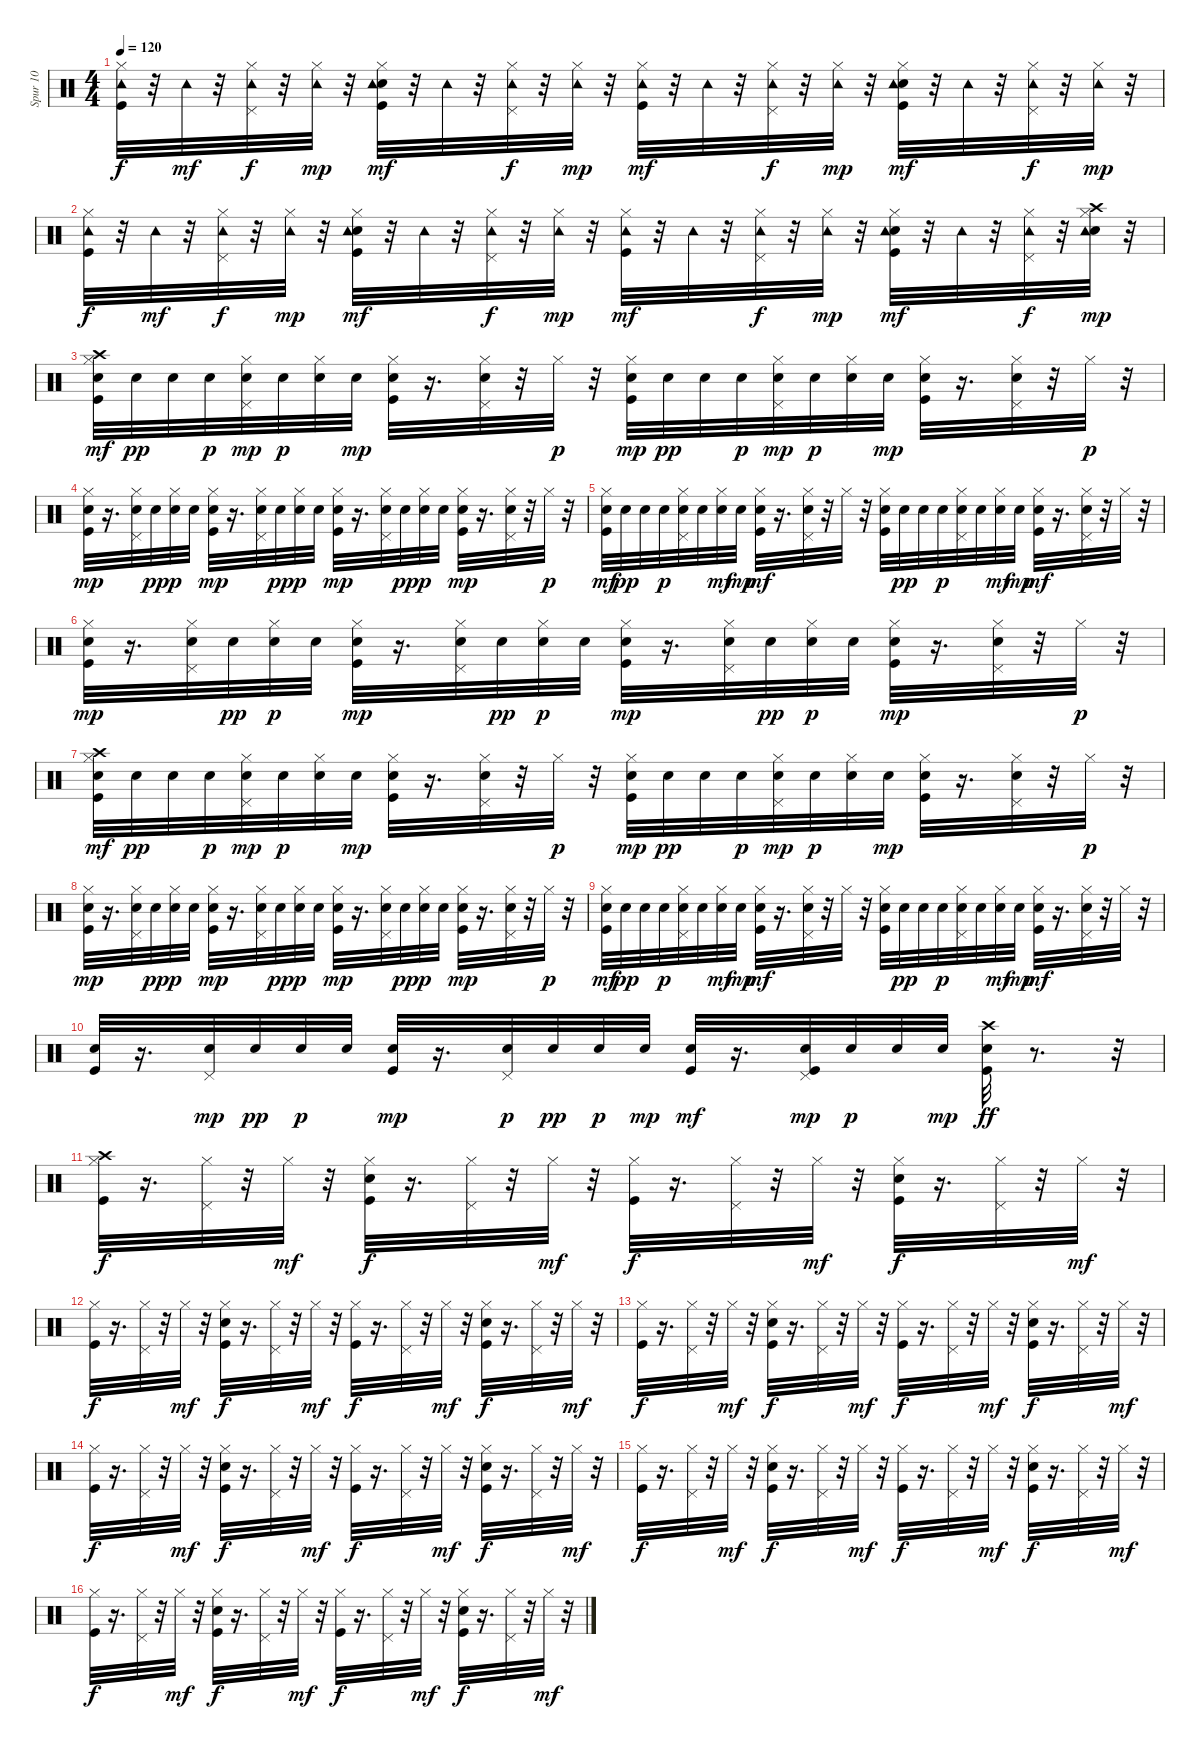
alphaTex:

\track ("Spur 10" "Spur 10") {instrument percussion}
\staff {score}
\articulation defaults
\ts (4 4)
\tempo 120
\clef neutral
\ks c
("Kick (hit)" "Hi-Hat (closed)" "Tambourine (hit)").32{dy f} r.32 "Tambourine (hit)".32{dy mf} r.32 ("Hi-Hat (closed)" "Pedal Hi-Hat (hit)" "Tambourine (hit)").32{dy f} r.32 ("Hi-Hat (closed)" "Tambourine (hit)").32{dy mp} r.32 ("Kick (hit)" "Snare (hit) 2" "Hi-Hat (closed)" "Tambourine (hit)").32{dy mf} r.32 "Tambourine (hit)".32 r.32 ("Hi-Hat (closed)" "Pedal Hi-Hat (hit)" "Tambourine (hit)").32{dy f} r.32 ("Hi-Hat (closed)" "Tambourine (hit)").32{dy mp} r.32 ("Kick (hit)" "Hi-Hat (closed)" "Tambourine (hit)").32{dy mf} r.32 "Tambourine (hit)".32 r.32 ("Hi-Hat (closed)" "Pedal Hi-Hat (hit)" "Tambourine (hit)").32{dy f} r.32 ("Hi-Hat (closed)" "Tambourine (hit)").32{dy mp} r.32 ("Kick (hit)" "Snare (hit) 2" "Hi-Hat (closed)" "Tambourine (hit)").32{dy mf} r.32 "Tambourine (hit)".32 r.32 ("Hi-Hat (closed)" "Pedal Hi-Hat (hit)" "Tambourine (hit)").32{dy f} r.32 ("Hi-Hat (closed)" "Tambourine (hit)").32{dy mp} r.32 |
("Kick (hit)" "Hi-Hat (closed)" "Tambourine (hit)").32{dy f} r.32 "Tambourine (hit)".32{dy mf} r.32 ("Hi-Hat (closed)" "Pedal Hi-Hat (hit)" "Tambourine (hit)").32{dy f} r.32 ("Hi-Hat (closed)" "Tambourine (hit)").32{dy mp} r.32 ("Kick (hit)" "Snare (hit) 2" "Hi-Hat (closed)" "Tambourine (hit)").32{dy mf} r.32 "Tambourine (hit)".32 r.32 ("Hi-Hat (closed)" "Pedal Hi-Hat (hit)" "Tambourine (hit)").32{dy f} r.32 ("Hi-Hat (closed)" "Tambourine (hit)").32{dy mp} r.32 ("Kick (hit)" "Hi-Hat (closed)" "Tambourine (hit)").32{dy mf} r.32 "Tambourine (hit)".32 r.32 ("Hi-Hat (closed)" "Pedal Hi-Hat (hit)" "Tambourine (hit)").32{dy f} r.32 ("Hi-Hat (closed)" "Tambourine (hit)").32{dy mp} r.32 ("Kick (hit)" "Snare (hit) 2" "Hi-Hat (closed)" "Tambourine (hit)").32{dy mf} r.32 "Tambourine (hit)".32 r.32 ("Hi-Hat (closed)" "Pedal Hi-Hat (hit)" "Tambourine (hit)").32{dy f} r.32 ("Snare (hit) 2" "Hi-Hat (closed)" "Crash high (hit)" "Tambourine (hit)").32{dy mp} r.32 |
("Kick (hit)" "Snare (hit) 2" "Hi-Hat (closed)" "Crash high (hit)").32{dy mf} "Snare (hit) 2".32{dy pp} "Snare (hit) 2".32 "Snare (hit) 2".32{dy p} ("Snare (hit) 2" "Hi-Hat (closed)" "Pedal Hi-Hat (hit)").32{dy mp} "Snare (hit) 2".32{dy p} ("Snare (hit) 2" "Hi-Hat (closed)").32 "Snare (hit) 2".32{dy mp} ("Kick (hit)" "Snare (hit) 2" "Hi-Hat (closed)").32 r.16{d} ("Snare (hit) 2" "Hi-Hat (closed)" "Pedal Hi-Hat (hit)").32 r.32 "Hi-Hat (closed)".32{dy p} r.32 ("Kick (hit)" "Snare (hit) 2" "Hi-Hat (closed)").32{dy mp} "Snare (hit) 2".32{dy pp} "Snare (hit) 2".32 "Snare (hit) 2".32{dy p} ("Snare (hit) 2" "Hi-Hat (closed)" "Pedal Hi-Hat (hit)").32{dy mp} "Snare (hit) 2".32{dy p} ("Snare (hit) 2" "Hi-Hat (closed)").32 "Snare (hit) 2".32{dy mp} ("Kick (hit)" "Snare (hit) 2" "Hi-Hat (closed)").32 r.16{d} ("Snare (hit) 2" "Hi-Hat (closed)" "Pedal Hi-Hat (hit)").32 r.32 "Hi-Hat (closed)".32{dy p} r.32 |
("Kick (hit)" "Snare (hit) 2" "Hi-Hat (closed)").32{dy mp} r.16{d} ("Snare (hit) 2" "Hi-Hat (closed)" "Pedal Hi-Hat (hit)").32 "Snare (hit) 2".32{dy pp} ("Snare (hit) 2" "Hi-Hat (closed)").32{dy p} "Snare (hit) 2".32 ("Kick (hit)" "Snare (hit) 2" "Hi-Hat (closed)").32{dy mp} r.16{d} ("Snare (hit) 2" "Hi-Hat (closed)" "Pedal Hi-Hat (hit)").32 "Snare (hit) 2".32{dy pp} ("Snare (hit) 2" "Hi-Hat (closed)").32{dy p} "Snare (hit) 2".32 ("Kick (hit)" "Snare (hit) 2" "Hi-Hat (closed)").32{dy mp} r.16{d} ("Snare (hit) 2" "Hi-Hat (closed)" "Pedal Hi-Hat (hit)").32 "Snare (hit) 2".32{dy pp} ("Snare (hit) 2" "Hi-Hat (closed)").32{dy p} "Snare (hit) 2".32 ("Kick (hit)" "Snare (hit) 2" "Hi-Hat (closed)").32{dy mp} r.16{d} ("Snare (hit) 2" "Hi-Hat (closed)" "Pedal Hi-Hat (hit)").32 r.32 "Hi-Hat (closed)".32{dy p} r.32 |
("Kick (hit)" "Snare (hit) 2" "Hi-Hat (closed)").32{dy mf} "Snare (hit) 2".32{dy pp} "Snare (hit) 2".32 "Snare (hit) 2".32{dy p} ("Snare (hit) 2" "Hi-Hat (closed)" "Pedal Hi-Hat (hit)").32 "Snare (hit) 2".32 ("Snare (hit) 2" "Hi-Hat (closed)").32{dy mf} "Snare (hit) 2".32{dy mp} ("Kick (hit)" "Snare (hit) 2" "Hi-Hat (closed)").32{dy mf} r.16{d} ("Snare (hit) 2" "Hi-Hat (closed)" "Pedal Hi-Hat (hit)").32 r.32 "Hi-Hat (closed)".32 r.32 ("Kick (hit)" "Snare (hit) 2" "Hi-Hat (closed)").32 "Snare (hit) 2".32{dy pp} "Snare (hit) 2".32 "Snare (hit) 2".32{dy p} ("Snare (hit) 2" "Hi-Hat (closed)" "Pedal Hi-Hat (hit)").32 "Snare (hit) 2".32 ("Snare (hit) 2" "Hi-Hat (closed)").32{dy mf} "Snare (hit) 2".32{dy mp} ("Kick (hit)" "Snare (hit) 2" "Hi-Hat (closed)").32{dy mf} r.16{d} ("Snare (hit) 2" "Hi-Hat (closed)" "Pedal Hi-Hat (hit)").32 r.32 "Hi-Hat (closed)".32 r.32 |
("Kick (hit)" "Snare (hit) 2" "Hi-Hat (closed)").32{dy mp} r.16{d} ("Snare (hit) 2" "Hi-Hat (closed)" "Pedal Hi-Hat (hit)").32 "Snare (hit) 2".32{dy pp} ("Snare (hit) 2" "Hi-Hat (closed)").32{dy p} "Snare (hit) 2".32 ("Kick (hit)" "Snare (hit) 2" "Hi-Hat (closed)").32{dy mp} r.16{d} ("Snare (hit) 2" "Hi-Hat (closed)" "Pedal Hi-Hat (hit)").32 "Snare (hit) 2".32{dy pp} ("Snare (hit) 2" "Hi-Hat (closed)").32{dy p} "Snare (hit) 2".32 ("Kick (hit)" "Snare (hit) 2" "Hi-Hat (closed)").32{dy mp} r.16{d} ("Snare (hit) 2" "Hi-Hat (closed)" "Pedal Hi-Hat (hit)").32 "Snare (hit) 2".32{dy pp} ("Snare (hit) 2" "Hi-Hat (closed)").32{dy p} "Snare (hit) 2".32 ("Kick (hit)" "Snare (hit) 2" "Hi-Hat (closed)").32{dy mp} r.16{d} ("Snare (hit) 2" "Hi-Hat (closed)" "Pedal Hi-Hat (hit)").32 r.32 "Hi-Hat (closed)".32{dy p} r.32 |
("Kick (hit)" "Snare (hit) 2" "Hi-Hat (closed)" "Crash high (hit)").32{dy mf} "Snare (hit) 2".32{dy pp} "Snare (hit) 2".32 "Snare (hit) 2".32{dy p} ("Snare (hit) 2" "Hi-Hat (closed)" "Pedal Hi-Hat (hit)").32{dy mp} "Snare (hit) 2".32{dy p} ("Snare (hit) 2" "Hi-Hat (closed)").32 "Snare (hit) 2".32{dy mp} ("Kick (hit)" "Snare (hit) 2" "Hi-Hat (closed)").32 r.16{d} ("Snare (hit) 2" "Hi-Hat (closed)" "Pedal Hi-Hat (hit)").32 r.32 "Hi-Hat (closed)".32{dy p} r.32 ("Kick (hit)" "Snare (hit) 2" "Hi-Hat (closed)").32{dy mp} "Snare (hit) 2".32{dy pp} "Snare (hit) 2".32 "Snare (hit) 2".32{dy p} ("Snare (hit) 2" "Hi-Hat (closed)" "Pedal Hi-Hat (hit)").32{dy mp} "Snare (hit) 2".32{dy p} ("Snare (hit) 2" "Hi-Hat (closed)").32 "Snare (hit) 2".32{dy mp} ("Kick (hit)" "Snare (hit) 2" "Hi-Hat (closed)").32 r.16{d} ("Snare (hit) 2" "Hi-Hat (closed)" "Pedal Hi-Hat (hit)").32 r.32 "Hi-Hat (closed)".32{dy p} r.32 |
("Kick (hit)" "Snare (hit) 2" "Hi-Hat (closed)").32{dy mp} r.16{d} ("Snare (hit) 2" "Hi-Hat (closed)" "Pedal Hi-Hat (hit)").32 "Snare (hit) 2".32{dy pp} ("Snare (hit) 2" "Hi-Hat (closed)").32{dy p} "Snare (hit) 2".32 ("Kick (hit)" "Snare (hit) 2" "Hi-Hat (closed)").32{dy mp} r.16{d} ("Snare (hit) 2" "Hi-Hat (closed)" "Pedal Hi-Hat (hit)").32 "Snare (hit) 2".32{dy pp} ("Snare (hit) 2" "Hi-Hat (closed)").32{dy p} "Snare (hit) 2".32 ("Kick (hit)" "Snare (hit) 2" "Hi-Hat (closed)").32{dy mp} r.16{d} ("Snare (hit) 2" "Hi-Hat (closed)" "Pedal Hi-Hat (hit)").32 "Snare (hit) 2".32{dy pp} ("Snare (hit) 2" "Hi-Hat (closed)").32{dy p} "Snare (hit) 2".32 ("Kick (hit)" "Snare (hit) 2" "Hi-Hat (closed)").32{dy mp} r.16{d} ("Snare (hit) 2" "Hi-Hat (closed)" "Pedal Hi-Hat (hit)").32 r.32 "Hi-Hat (closed)".32{dy p} r.32 |
("Kick (hit)" "Snare (hit) 2" "Hi-Hat (closed)").32{dy mf} "Snare (hit) 2".32{dy pp} "Snare (hit) 2".32 "Snare (hit) 2".32{dy p} ("Snare (hit) 2" "Hi-Hat (closed)" "Pedal Hi-Hat (hit)").32 "Snare (hit) 2".32 ("Snare (hit) 2" "Hi-Hat (closed)").32{dy mf} "Snare (hit) 2".32{dy mp} ("Kick (hit)" "Snare (hit) 2" "Hi-Hat (closed)").32{dy mf} r.16{d} ("Snare (hit) 2" "Hi-Hat (closed)" "Pedal Hi-Hat (hit)").32 r.32 "Hi-Hat (closed)".32 r.32 ("Kick (hit)" "Snare (hit) 2" "Hi-Hat (closed)").32 "Snare (hit) 2".32{dy pp} "Snare (hit) 2".32 "Snare (hit) 2".32{dy p} ("Snare (hit) 2" "Hi-Hat (closed)" "Pedal Hi-Hat (hit)").32 "Snare (hit) 2".32 ("Snare (hit) 2" "Hi-Hat (closed)").32{dy mf} "Snare (hit) 2".32{dy mp} ("Kick (hit)" "Snare (hit) 2" "Hi-Hat (closed)").32{dy mf} r.16{d} ("Snare (hit) 2" "Hi-Hat (closed)" "Pedal Hi-Hat (hit)").32 r.32 "Hi-Hat (closed)".32 r.32 |
("Kick (hit)" "Snare (hit) 2").32 r.16{d} ("Snare (hit) 2" "Pedal Hi-Hat (hit)").32{dy mp} "Snare (hit) 2".32{dy pp} "Snare (hit) 2".32{dy p} "Snare (hit) 2".32 ("Kick (hit)" "Snare (hit) 2").32{dy mp} r.16{d} ("Snare (hit) 2" "Pedal Hi-Hat (hit)").32{dy p} "Snare (hit) 2".32{dy pp} "Snare (hit) 2".32{dy p} "Snare (hit) 2".32{dy mp} ("Kick (hit)" "Snare (hit) 2").32{dy mf} r.16{d} ("Kick (hit)" "Snare (hit) 2" "Pedal Hi-Hat (hit)").32{dy mp} "Snare (hit) 2".32{dy p} "Snare (hit) 2".32 "Snare (hit) 2".32{dy mp} ("Kick (hit)" "Snare (hit) 2" "Crash high (hit)").32{dy ff} r.8{d} r.32 |
("Kick (hit)" "Hi-Hat (closed)" "Crash high (hit)").32{dy f} r.16{d} ("Hi-Hat (closed)" "Pedal Hi-Hat (hit)").32 r.32 "Hi-Hat (closed)".32{dy mf} r.32 ("Kick (hit)" "Snare (hit) 2" "Hi-Hat (closed)").32{dy f} r.16{d} ("Hi-Hat (closed)" "Pedal Hi-Hat (hit)").32 r.32 "Hi-Hat (closed)".32{dy mf} r.32 ("Kick (hit)" "Hi-Hat (closed)").32{dy f} r.16{d} ("Hi-Hat (closed)" "Pedal Hi-Hat (hit)").32 r.32 "Hi-Hat (closed)".32{dy mf} r.32 ("Kick (hit)" "Snare (hit) 2" "Hi-Hat (closed)").32{dy f} r.16{d} ("Hi-Hat (closed)" "Pedal Hi-Hat (hit)").32 r.32 "Hi-Hat (closed)".32{dy mf} r.32 |
("Kick (hit)" "Hi-Hat (closed)").32{dy f} r.16{d} ("Hi-Hat (closed)" "Pedal Hi-Hat (hit)").32 r.32 "Hi-Hat (closed)".32{dy mf} r.32 ("Kick (hit)" "Snare (hit) 2" "Hi-Hat (closed)").32{dy f} r.16{d} ("Hi-Hat (closed)" "Pedal Hi-Hat (hit)").32 r.32 "Hi-Hat (closed)".32{dy mf} r.32 ("Kick (hit)" "Hi-Hat (closed)").32{dy f} r.16{d} ("Hi-Hat (closed)" "Pedal Hi-Hat (hit)").32 r.32 "Hi-Hat (closed)".32{dy mf} r.32 ("Kick (hit)" "Snare (hit) 2" "Hi-Hat (closed)").32{dy f} r.16{d} ("Hi-Hat (closed)" "Pedal Hi-Hat (hit)").32 r.32 "Hi-Hat (closed)".32{dy mf} r.32 |
("Kick (hit)" "Hi-Hat (closed)").32{dy f} r.16{d} ("Hi-Hat (closed)" "Pedal Hi-Hat (hit)").32 r.32 "Hi-Hat (closed)".32{dy mf} r.32 ("Kick (hit)" "Snare (hit) 2" "Hi-Hat (closed)").32{dy f} r.16{d} ("Hi-Hat (closed)" "Pedal Hi-Hat (hit)").32 r.32 "Hi-Hat (closed)".32{dy mf} r.32 ("Kick (hit)" "Hi-Hat (closed)").32{dy f} r.16{d} ("Hi-Hat (closed)" "Pedal Hi-Hat (hit)").32 r.32 "Hi-Hat (closed)".32{dy mf} r.32 ("Kick (hit)" "Snare (hit) 2" "Hi-Hat (closed)").32{dy f} r.16{d} ("Hi-Hat (closed)" "Pedal Hi-Hat (hit)").32 r.32 "Hi-Hat (closed)".32{dy mf} r.32 |
("Kick (hit)" "Hi-Hat (closed)").32{dy f} r.16{d} ("Hi-Hat (closed)" "Pedal Hi-Hat (hit)").32 r.32 "Hi-Hat (closed)".32{dy mf} r.32 ("Kick (hit)" "Snare (hit) 2" "Hi-Hat (closed)").32{dy f} r.16{d} ("Hi-Hat (closed)" "Pedal Hi-Hat (hit)").32 r.32 "Hi-Hat (closed)".32{dy mf} r.32 ("Kick (hit)" "Hi-Hat (closed)").32{dy f} r.16{d} ("Hi-Hat (closed)" "Pedal Hi-Hat (hit)").32 r.32 "Hi-Hat (closed)".32{dy mf} r.32 ("Kick (hit)" "Snare (hit) 2" "Hi-Hat (closed)").32{dy f} r.16{d} ("Hi-Hat (closed)" "Pedal Hi-Hat (hit)").32 r.32 "Hi-Hat (closed)".32{dy mf} r.32 |
("Kick (hit)" "Hi-Hat (closed)").32{dy f} r.16{d} ("Hi-Hat (closed)" "Pedal Hi-Hat (hit)").32 r.32 "Hi-Hat (closed)".32{dy mf} r.32 ("Kick (hit)" "Snare (hit) 2" "Hi-Hat (closed)").32{dy f} r.16{d} ("Hi-Hat (closed)" "Pedal Hi-Hat (hit)").32 r.32 "Hi-Hat (closed)".32{dy mf} r.32 ("Kick (hit)" "Hi-Hat (closed)").32{dy f} r.16{d} ("Hi-Hat (closed)" "Pedal Hi-Hat (hit)").32 r.32 "Hi-Hat (closed)".32{dy mf} r.32 ("Kick (hit)" "Snare (hit) 2" "Hi-Hat (closed)").32{dy f} r.16{d} ("Hi-Hat (closed)" "Pedal Hi-Hat (hit)").32 r.32 "Hi-Hat (closed)".32{dy mf} r.32 |
("Kick (hit)" "Hi-Hat (closed)").32{dy f} r.16{d} ("Hi-Hat (closed)" "Pedal Hi-Hat (hit)").32 r.32 "Hi-Hat (closed)".32{dy mf} r.32 ("Kick (hit)" "Snare (hit) 2" "Hi-Hat (closed)").32{dy f} r.16{d} ("Hi-Hat (closed)" "Pedal Hi-Hat (hit)").32 r.32 "Hi-Hat (closed)".32{dy mf} r.32 ("Kick (hit)" "Hi-Hat (closed)").32{dy f} r.16{d} ("Hi-Hat (closed)" "Pedal Hi-Hat (hit)").32 r.32 "Hi-Hat (closed)".32{dy mf} r.32 ("Kick (hit)" "Snare (hit) 2" "Hi-Hat (closed)").32{dy f} r.16{d} ("Hi-Hat (closed)" "Pedal Hi-Hat (hit)").32 r.32 "Hi-Hat (closed)".32{dy mf} r.32
